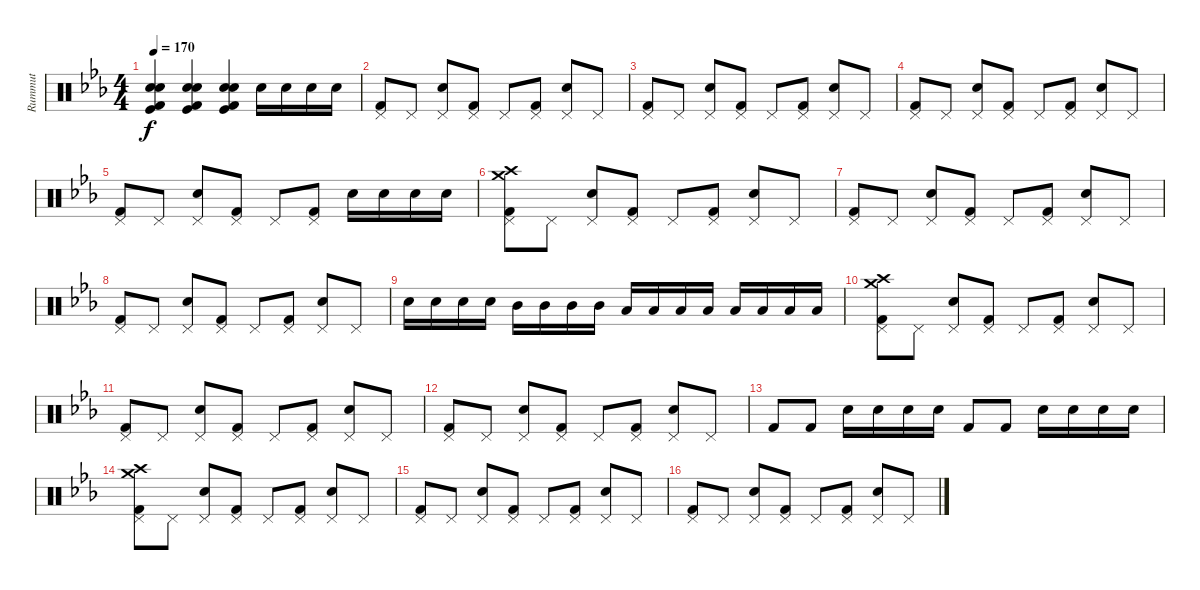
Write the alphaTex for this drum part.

\track ("Rummut" "Rummut") {instrument percussion}
\staff {score}
\articulation defaults
\ts (4 4)
\tempo 170
\clef neutral
\ks eb
("Kick (hit) 2" "Kick (hit)" "Snare (hit) 2" "Snare (hit) 2").4{dy f} ("Kick (hit) 2" "Kick (hit)" "Snare (hit) 2" "Snare (hit) 2").4 ("Kick (hit) 2" "Kick (hit)" "Snare (hit) 2" "Snare (hit) 2").4 "Snare (hit) 2".16 "Snare (hit) 2".16 "Snare (hit) 2".16 "Snare (hit) 2".16 |
("Pedal Hi-Hat (hit)" "Kick (hit) 2").8 "Pedal Hi-Hat (hit)".8 ("Pedal Hi-Hat (hit)" "Snare (hit) 2").8 ("Pedal Hi-Hat (hit)" "Kick (hit) 2").8 "Pedal Hi-Hat (hit)".8 ("Pedal Hi-Hat (hit)" "Kick (hit) 2").8 ("Pedal Hi-Hat (hit)" "Snare (hit) 2").8 "Pedal Hi-Hat (hit)".8 |
("Pedal Hi-Hat (hit)" "Kick (hit) 2").8 "Pedal Hi-Hat (hit)".8 ("Pedal Hi-Hat (hit)" "Snare (hit) 2").8 ("Pedal Hi-Hat (hit)" "Kick (hit) 2").8 "Pedal Hi-Hat (hit)".8 ("Pedal Hi-Hat (hit)" "Kick (hit) 2").8 ("Pedal Hi-Hat (hit)" "Snare (hit) 2").8 "Pedal Hi-Hat (hit)".8 |
("Pedal Hi-Hat (hit)" "Kick (hit) 2").8 "Pedal Hi-Hat (hit)".8 ("Pedal Hi-Hat (hit)" "Snare (hit) 2").8 ("Pedal Hi-Hat (hit)" "Kick (hit) 2").8 "Pedal Hi-Hat (hit)".8 ("Pedal Hi-Hat (hit)" "Kick (hit) 2").8 ("Pedal Hi-Hat (hit)" "Snare (hit) 2").8 "Pedal Hi-Hat (hit)".8 |
("Pedal Hi-Hat (hit)" "Kick (hit) 2").8 "Pedal Hi-Hat (hit)".8 ("Pedal Hi-Hat (hit)" "Snare (hit) 2").8 ("Pedal Hi-Hat (hit)" "Kick (hit) 2").8 "Pedal Hi-Hat (hit)".8 ("Pedal Hi-Hat (hit)" "Kick (hit) 2").8 "Snare (hit) 2".16 "Snare (hit) 2".16 "Snare (hit) 2".16 "Snare (hit) 2".16 |
("Crash high (hit)" "Pedal Hi-Hat (hit)" "Crash medium (hit)" "Kick (hit) 2").8 "Pedal Hi-Hat (hit)".8 ("Pedal Hi-Hat (hit)" "Snare (hit) 2").8 ("Pedal Hi-Hat (hit)" "Kick (hit) 2").8 "Pedal Hi-Hat (hit)".8 ("Pedal Hi-Hat (hit)" "Kick (hit) 2").8 ("Pedal Hi-Hat (hit)" "Snare (hit) 2").8 "Pedal Hi-Hat (hit)".8 |
("Pedal Hi-Hat (hit)" "Kick (hit) 2").8 "Pedal Hi-Hat (hit)".8 ("Pedal Hi-Hat (hit)" "Snare (hit) 2").8 ("Pedal Hi-Hat (hit)" "Kick (hit) 2").8 "Pedal Hi-Hat (hit)".8 ("Pedal Hi-Hat (hit)" "Kick (hit) 2").8 ("Pedal Hi-Hat (hit)" "Snare (hit) 2").8 "Pedal Hi-Hat (hit)".8 |
("Pedal Hi-Hat (hit)" "Kick (hit) 2").8 "Pedal Hi-Hat (hit)".8 ("Pedal Hi-Hat (hit)" "Snare (hit) 2").8 ("Pedal Hi-Hat (hit)" "Kick (hit) 2").8 "Pedal Hi-Hat (hit)".8 ("Pedal Hi-Hat (hit)" "Kick (hit) 2").8 ("Pedal Hi-Hat (hit)" "Snare (hit) 2").8 "Pedal Hi-Hat (hit)".8 |
"Snare (hit) 2".16 "Snare (hit) 2".16 "Snare (hit) 2".16 "Snare (hit) 2".16 "Mid Tom (hit)".16 "Mid Tom (hit)".16 "Mid Tom (hit)".16 "Mid Tom (hit)".16 "Low Tom (hit)".16 "Low Tom (hit)".16 "Low Tom (hit)".16 "Low Tom (hit)".16 "Low Floor Tom (hit)".16 "Low Floor Tom (hit)".16 "Low Floor Tom (hit)".16 "Low Floor Tom (hit)".16 |
("Crash high (hit)" "Pedal Hi-Hat (hit)" "Crash medium (hit)" "Kick (hit) 2").8 "Pedal Hi-Hat (hit)".8 ("Pedal Hi-Hat (hit)" "Snare (hit) 2").8 ("Pedal Hi-Hat (hit)" "Kick (hit) 2").8 "Pedal Hi-Hat (hit)".8 ("Pedal Hi-Hat (hit)" "Kick (hit) 2").8 ("Pedal Hi-Hat (hit)" "Snare (hit) 2").8 "Pedal Hi-Hat (hit)".8 |
("Pedal Hi-Hat (hit)" "Kick (hit) 2").8 "Pedal Hi-Hat (hit)".8 ("Pedal Hi-Hat (hit)" "Snare (hit) 2").8 ("Pedal Hi-Hat (hit)" "Kick (hit) 2").8 "Pedal Hi-Hat (hit)".8 ("Pedal Hi-Hat (hit)" "Kick (hit) 2").8 ("Pedal Hi-Hat (hit)" "Snare (hit) 2").8 "Pedal Hi-Hat (hit)".8 |
("Pedal Hi-Hat (hit)" "Kick (hit) 2").8 "Pedal Hi-Hat (hit)".8 ("Pedal Hi-Hat (hit)" "Snare (hit) 2").8 ("Pedal Hi-Hat (hit)" "Kick (hit) 2").8 "Pedal Hi-Hat (hit)".8 ("Pedal Hi-Hat (hit)" "Kick (hit) 2").8 ("Pedal Hi-Hat (hit)" "Snare (hit) 2").8 "Pedal Hi-Hat (hit)".8 |
"Kick (hit) 2".8 "Kick (hit) 2".8 "Snare (hit) 2".16 "Snare (hit) 2".16 "Snare (hit) 2".16 "Snare (hit) 2".16 "Kick (hit) 2".8 "Kick (hit) 2".8 "Snare (hit) 2".16 "Snare (hit) 2".16 "Snare (hit) 2".16 "Snare (hit) 2".16 |
("Crash medium (hit)" "Pedal Hi-Hat (hit)" "Crash high (hit)" "Kick (hit) 2").8 "Pedal Hi-Hat (hit)".8 ("Pedal Hi-Hat (hit)" "Snare (hit) 2").8 ("Pedal Hi-Hat (hit)" "Kick (hit) 2").8 "Pedal Hi-Hat (hit)".8 ("Pedal Hi-Hat (hit)" "Kick (hit) 2").8 ("Pedal Hi-Hat (hit)" "Snare (hit) 2").8 "Pedal Hi-Hat (hit)".8 |
("Pedal Hi-Hat (hit)" "Kick (hit) 2").8 "Pedal Hi-Hat (hit)".8 ("Pedal Hi-Hat (hit)" "Snare (hit) 2").8 ("Pedal Hi-Hat (hit)" "Kick (hit) 2").8 "Pedal Hi-Hat (hit)".8 ("Pedal Hi-Hat (hit)" "Kick (hit) 2").8 ("Pedal Hi-Hat (hit)" "Snare (hit) 2").8 "Pedal Hi-Hat (hit)".8 |
("Pedal Hi-Hat (hit)" "Kick (hit) 2").8 "Pedal Hi-Hat (hit)".8 ("Pedal Hi-Hat (hit)" "Snare (hit) 2").8 ("Pedal Hi-Hat (hit)" "Kick (hit) 2").8 "Pedal Hi-Hat (hit)".8 ("Pedal Hi-Hat (hit)" "Kick (hit) 2").8 ("Pedal Hi-Hat (hit)" "Snare (hit) 2").8 "Pedal Hi-Hat (hit)".8
